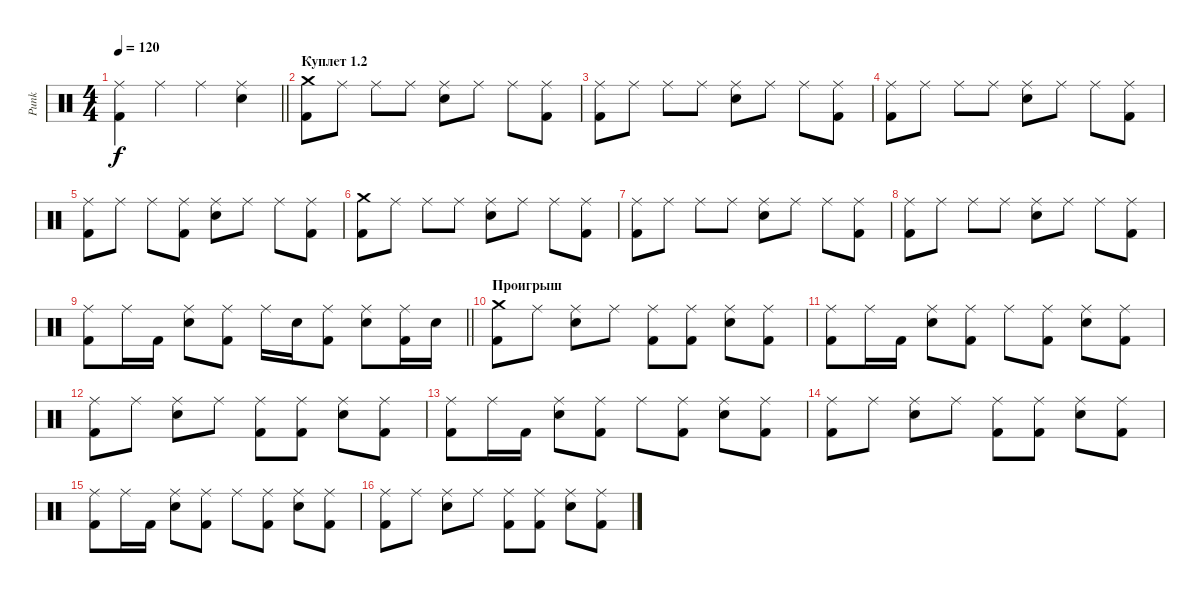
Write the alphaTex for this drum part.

\track ("Punk" "Punk") {instrument percussion}
\staff {score}
\articulation defaults
\ts (4 4)
\tempo 120
\clef neutral
\barLineRight lightlight
\ks c
("Ride (middle)" "Kick (hit) 2").4{dy f} "Ride (middle)".4 "Ride (middle)".4 ("Ride (middle)" "Electric Snare (hit)").4 |
\section ("" "Куплет 1.2")
("Crash medium (hit)" "Kick (hit) 2").8 "Ride (middle)".8 "Ride (middle)".8 "Ride (middle)".8 ("Ride (middle)" "Electric Snare (hit)").8 "Ride (middle)".8 "Ride (middle)".8 ("Ride (middle)" "Kick (hit) 2").8 |
("Ride (middle)" "Kick (hit) 2").8 "Ride (middle)".8 "Ride (middle)".8 "Ride (middle)".8 ("Ride (middle)" "Electric Snare (hit)").8 "Ride (middle)".8 "Ride (middle)".8 ("Ride (middle)" "Kick (hit) 2").8 |
("Ride (middle)" "Kick (hit) 2").8 "Ride (middle)".8 "Ride (middle)".8 "Ride (middle)".8 ("Ride (middle)" "Electric Snare (hit)").8 "Ride (middle)".8 "Ride (middle)".8 ("Ride (middle)" "Kick (hit) 2").8 |
("Ride (middle)" "Kick (hit) 2").8 "Ride (middle)".8 "Ride (middle)".8 ("Ride (middle)" "Kick (hit) 2").8 ("Ride (middle)" "Electric Snare (hit)").8 "Ride (middle)".8 "Ride (middle)".8 ("Ride (middle)" "Kick (hit) 2").8 |
("Crash medium (hit)" "Kick (hit) 2").8 "Ride (middle)".8 "Ride (middle)".8 "Ride (middle)".8 ("Ride (middle)" "Electric Snare (hit)").8 "Ride (middle)".8 "Ride (middle)".8 ("Ride (middle)" "Kick (hit) 2").8 |
("Ride (middle)" "Kick (hit) 2").8 "Ride (middle)".8 "Ride (middle)".8 "Ride (middle)".8 ("Ride (middle)" "Electric Snare (hit)").8 "Ride (middle)".8 "Ride (middle)".8 ("Ride (middle)" "Kick (hit) 2").8 |
("Ride (middle)" "Kick (hit) 2").8 "Ride (middle)".8 "Ride (middle)".8 "Ride (middle)".8 ("Ride (middle)" "Electric Snare (hit)").8 "Ride (middle)".8 "Ride (middle)".8 ("Ride (middle)" "Kick (hit) 2").8 |
\barLineRight lightlight
("Ride (middle)" "Kick (hit) 2").8 "Ride (middle)".16 "Kick (hit) 2".16 ("Ride (middle)" "Electric Snare (hit)").8 ("Ride (middle)" "Kick (hit) 2").8 "Ride (middle)".16 "Electric Snare (hit)".16 ("Ride (middle)" "Kick (hit) 2").8 ("Ride (middle)" "Electric Snare (hit)").8 ("Ride (middle)" "Kick (hit) 2").16 "Electric Snare (hit)".16 |
\section ("" "Проигрыш")
("Crash medium (hit)" "Kick (hit) 2").8 "Ride (middle)".8 ("Ride (middle)" "Electric Snare (hit)").8 "Ride (middle)".8 ("Ride (middle)" "Kick (hit) 2").8 ("Ride (middle)" "Kick (hit) 2").8 ("Ride (middle)" "Electric Snare (hit)").8 ("Ride (middle)" "Kick (hit) 2").8 |
("Ride (middle)" "Kick (hit) 2").8 "Ride (middle)".16 "Kick (hit) 2".16 ("Ride (middle)" "Electric Snare (hit)").8 ("Ride (middle)" "Kick (hit) 2").8 "Ride (middle)".8 ("Ride (middle)" "Kick (hit) 2").8 ("Ride (middle)" "Electric Snare (hit)").8 ("Ride (middle)" "Kick (hit) 2").8 |
("Ride (middle)" "Kick (hit) 2").8 "Ride (middle)".8 ("Ride (middle)" "Electric Snare (hit)").8 "Ride (middle)".8 ("Ride (middle)" "Kick (hit) 2").8 ("Ride (middle)" "Kick (hit) 2").8 ("Ride (middle)" "Electric Snare (hit)").8 ("Ride (middle)" "Kick (hit) 2").8 |
("Ride (middle)" "Kick (hit) 2").8 "Ride (middle)".16 "Kick (hit) 2".16 ("Ride (middle)" "Electric Snare (hit)").8 ("Ride (middle)" "Kick (hit) 2").8 "Ride (middle)".8 ("Ride (middle)" "Kick (hit) 2").8 ("Ride (middle)" "Electric Snare (hit)").8 ("Ride (middle)" "Kick (hit) 2").8 |
("Ride (middle)" "Kick (hit) 2").8 "Ride (middle)".8 ("Ride (middle)" "Electric Snare (hit)").8 "Ride (middle)".8 ("Ride (middle)" "Kick (hit) 2").8 ("Ride (middle)" "Kick (hit) 2").8 ("Ride (middle)" "Electric Snare (hit)").8 ("Ride (middle)" "Kick (hit) 2").8 |
("Ride (middle)" "Kick (hit) 2").8 "Ride (middle)".16 "Kick (hit) 2".16 ("Ride (middle)" "Electric Snare (hit)").8 ("Ride (middle)" "Kick (hit) 2").8 "Ride (middle)".8 ("Ride (middle)" "Kick (hit) 2").8 ("Ride (middle)" "Electric Snare (hit)").8 ("Ride (middle)" "Kick (hit) 2").8 |
("Ride (middle)" "Kick (hit) 2").8 "Ride (middle)".8 ("Ride (middle)" "Electric Snare (hit)").8 "Ride (middle)".8 ("Ride (middle)" "Kick (hit) 2").8 ("Ride (middle)" "Kick (hit) 2").8 ("Ride (middle)" "Electric Snare (hit)").8 ("Ride (middle)" "Kick (hit) 2").8
